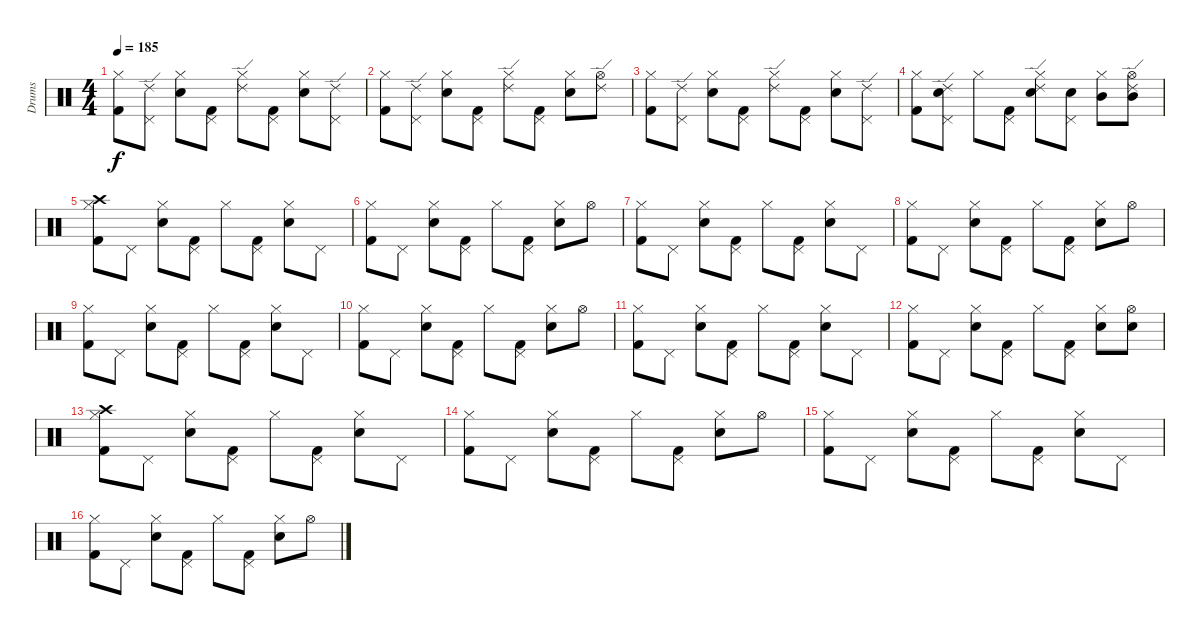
\track ("Drums" "Drums") {instrument percussion}
\staff {score}
\articulation defaults
\ts (4 4)
\tempo 185
\clef neutral
\ks c
("Kick (hit) 2" "Hi-Hat (closed)").8{dy f} ("Ride (edge) 2" "Pedal Hi-Hat (hit)").8 ("Electric Snare (hit)" "Hi-Hat (closed)").8 ("Kick (hit) 2" "Pedal Hi-Hat (hit)").8 ("Ride (edge) 2" "Hi-Hat (closed)").8 ("Kick (hit) 2" "Pedal Hi-Hat (hit)").8 ("Electric Snare (hit)" "Hi-Hat (closed)").8 ("Ride (edge) 2" "Pedal Hi-Hat (hit)").8 |
("Kick (hit) 2" "Hi-Hat (closed)").8 ("Ride (edge) 2" "Pedal Hi-Hat (hit)").8 ("Electric Snare (hit)" "Hi-Hat (closed)").8 ("Kick (hit) 2" "Pedal Hi-Hat (hit)").8 ("Ride (edge) 2" "Hi-Hat (closed)").8 ("Kick (hit) 2" "Pedal Hi-Hat (hit)").8 ("Electric Snare (hit)" "Hi-Hat (closed)").8 ("Ride (edge) 2" "Hi-Hat (open)").8 |
("Kick (hit) 2" "Hi-Hat (closed)").8 ("Ride (edge) 2" "Pedal Hi-Hat (hit)").8 ("Electric Snare (hit)" "Hi-Hat (closed)").8 ("Kick (hit) 2" "Pedal Hi-Hat (hit)").8 ("Ride (edge) 2" "Hi-Hat (closed)").8 ("Kick (hit) 2" "Pedal Hi-Hat (hit)").8 ("Electric Snare (hit)" "Hi-Hat (closed)").8 ("Ride (edge) 2" "Pedal Hi-Hat (hit)").8 |
("Kick (hit) 2" "Hi-Hat (closed)").8 ("Electric Snare (hit)" "Ride (edge) 2" "Pedal Hi-Hat (hit)").8 "Hi-Hat (closed)".8 ("Kick (hit) 2" "Pedal Hi-Hat (hit)").8 ("Electric Snare (hit)" "Ride (edge) 2" "Hi-Hat (closed)").8 ("Electric Snare (hit)" "Pedal Hi-Hat (hit)").8 ("Mid Tom (hit)" "Hi-Hat (closed)").8 ("Mid Tom (hit)" "Ride (edge) 2" "Hi-Hat (open)").8 |
("Kick (hit) 2" "Crash high (hit)" "Hi-Hat (closed)").8 "Pedal Hi-Hat (hit)".8 ("Electric Snare (hit)" "Hi-Hat (closed)").8 ("Kick (hit) 2" "Pedal Hi-Hat (hit)").8 "Hi-Hat (closed)".8 ("Kick (hit) 2" "Pedal Hi-Hat (hit)").8 ("Electric Snare (hit)" "Hi-Hat (closed)").8 "Pedal Hi-Hat (hit)".8 |
("Kick (hit) 2" "Hi-Hat (closed)").8 "Pedal Hi-Hat (hit)".8 ("Electric Snare (hit)" "Hi-Hat (closed)").8 ("Kick (hit) 2" "Pedal Hi-Hat (hit)").8 "Hi-Hat (closed)".8 ("Kick (hit) 2" "Pedal Hi-Hat (hit)").8 ("Electric Snare (hit)" "Hi-Hat (closed)").8 "Hi-Hat (open)".8 |
("Kick (hit) 2" "Hi-Hat (closed)").8 "Pedal Hi-Hat (hit)".8 ("Electric Snare (hit)" "Hi-Hat (closed)").8 ("Kick (hit) 2" "Pedal Hi-Hat (hit)").8 "Hi-Hat (closed)".8 ("Kick (hit) 2" "Pedal Hi-Hat (hit)").8 ("Electric Snare (hit)" "Hi-Hat (closed)").8 "Pedal Hi-Hat (hit)".8 |
("Kick (hit) 2" "Hi-Hat (closed)").8 "Pedal Hi-Hat (hit)".8 ("Electric Snare (hit)" "Hi-Hat (closed)").8 ("Kick (hit) 2" "Pedal Hi-Hat (hit)").8 "Hi-Hat (closed)".8 ("Kick (hit) 2" "Pedal Hi-Hat (hit)").8 ("Electric Snare (hit)" "Hi-Hat (closed)").8 "Hi-Hat (open)".8 |
("Kick (hit) 2" "Hi-Hat (closed)").8 "Pedal Hi-Hat (hit)".8 ("Electric Snare (hit)" "Hi-Hat (closed)").8 ("Kick (hit) 2" "Pedal Hi-Hat (hit)").8 "Hi-Hat (closed)".8 ("Kick (hit) 2" "Pedal Hi-Hat (hit)").8 ("Electric Snare (hit)" "Hi-Hat (closed)").8 "Pedal Hi-Hat (hit)".8 |
("Kick (hit) 2" "Hi-Hat (closed)").8 "Pedal Hi-Hat (hit)".8 ("Electric Snare (hit)" "Hi-Hat (closed)").8 ("Kick (hit) 2" "Pedal Hi-Hat (hit)").8 "Hi-Hat (closed)".8 ("Kick (hit) 2" "Pedal Hi-Hat (hit)").8 ("Electric Snare (hit)" "Hi-Hat (closed)").8 "Hi-Hat (open)".8 |
("Kick (hit) 2" "Hi-Hat (closed)").8 "Pedal Hi-Hat (hit)".8 ("Electric Snare (hit)" "Hi-Hat (closed)").8 ("Kick (hit) 2" "Pedal Hi-Hat (hit)").8 "Hi-Hat (closed)".8 ("Kick (hit) 2" "Pedal Hi-Hat (hit)").8 ("Electric Snare (hit)" "Hi-Hat (closed)").8 "Pedal Hi-Hat (hit)".8 |
("Kick (hit) 2" "Hi-Hat (closed)").8 "Pedal Hi-Hat (hit)".8 ("Electric Snare (hit)" "Hi-Hat (closed)").8 ("Kick (hit) 2" "Pedal Hi-Hat (hit)").8 "Hi-Hat (closed)".8 ("Kick (hit) 2" "Pedal Hi-Hat (hit)").8 ("Electric Snare (hit)" "Hi-Hat (closed)").8 ("Electric Snare (hit)" "Hi-Hat (open)").8 |
("Kick (hit) 2" "Crash high (hit)" "Hi-Hat (closed)").8 "Pedal Hi-Hat (hit)".8 ("Electric Snare (hit)" "Hi-Hat (closed)").8 ("Kick (hit) 2" "Pedal Hi-Hat (hit)").8 "Hi-Hat (closed)".8 ("Kick (hit) 2" "Pedal Hi-Hat (hit)").8 ("Electric Snare (hit)" "Hi-Hat (closed)").8 "Pedal Hi-Hat (hit)".8 |
("Kick (hit) 2" "Hi-Hat (closed)").8 "Pedal Hi-Hat (hit)".8 ("Electric Snare (hit)" "Hi-Hat (closed)").8 ("Kick (hit) 2" "Pedal Hi-Hat (hit)").8 "Hi-Hat (closed)".8 ("Kick (hit) 2" "Pedal Hi-Hat (hit)").8 ("Electric Snare (hit)" "Hi-Hat (closed)").8 "Hi-Hat (open)".8 |
("Kick (hit) 2" "Hi-Hat (closed)").8 "Pedal Hi-Hat (hit)".8 ("Electric Snare (hit)" "Hi-Hat (closed)").8 ("Kick (hit) 2" "Pedal Hi-Hat (hit)").8 "Hi-Hat (closed)".8 ("Kick (hit) 2" "Pedal Hi-Hat (hit)").8 ("Electric Snare (hit)" "Hi-Hat (closed)").8 "Pedal Hi-Hat (hit)".8 |
("Kick (hit) 2" "Hi-Hat (closed)").8 "Pedal Hi-Hat (hit)".8 ("Electric Snare (hit)" "Hi-Hat (closed)").8 ("Kick (hit) 2" "Pedal Hi-Hat (hit)").8 "Hi-Hat (closed)".8 ("Kick (hit) 2" "Pedal Hi-Hat (hit)").8 ("Electric Snare (hit)" "Hi-Hat (closed)").8 "Hi-Hat (open)".8
